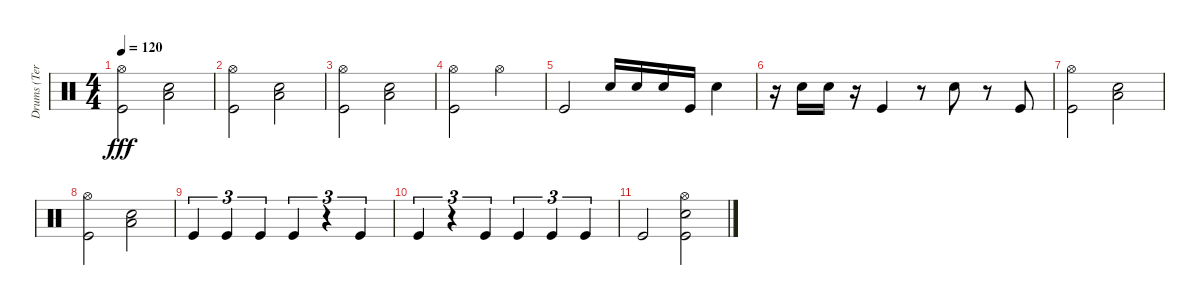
\track ("Drums (Terry Bozzio)" "Drums (Ter") {instrument percussion}
\staff {score}
\articulation defaults
\ts (4 4)
\tempo 120
\clef neutral
\ks c
("Hi-Hat (open)" "Kick (hit)").2{dy fff} ("Low Floor Tom (hit)" "Snare (hit) 2").2 |
("Hi-Hat (open)" "Kick (hit)").2 ("Low Floor Tom (hit)" "Snare (hit) 2").2 |
("Hi-Hat (open)" "Kick (hit)").2 ("Low Floor Tom (hit)" "Snare (hit) 2").2 |
("Hi-Hat (open)" "Kick (hit)").2 "Hi-Hat (open)".2 |
"Kick (hit)".2 "Snare (hit) 2".16 "Snare (hit) 2".16 "Snare (hit) 2".16 "Kick (hit)".16 "Snare (hit) 2".4 |
r.16 "Snare (hit) 2".16 "Snare (hit) 2".16 r.16 "Kick (hit)".4 r.8 "Snare (hit) 2".8 r.8 "Kick (hit)".8 |
("Hi-Hat (open)" "Kick (hit)").2 ("Low Floor Tom (hit)" "Snare (hit) 2").2 |
("Hi-Hat (open)" "Kick (hit)").2 ("Low Floor Tom (hit)" "Snare (hit) 2").2 |
"Kick (hit)".4{tu (3 2)} "Kick (hit)".4{tu (3 2)} "Kick (hit)".4{tu (3 2)} "Kick (hit)".4{tu (3 2)} r.4{tu (3 2)} "Kick (hit)".4{tu (3 2)} |
"Kick (hit)".4{tu (3 2)} r.4{tu (3 2)} "Kick (hit)".4{tu (3 2)} "Kick (hit)".4{tu (3 2)} "Kick (hit)".4{tu (3 2)} "Kick (hit)".4{tu (3 2)} |
"Kick (hit)".2 ("Hi-Hat (open)" "Snare (hit) 2" "Kick (hit)").2
